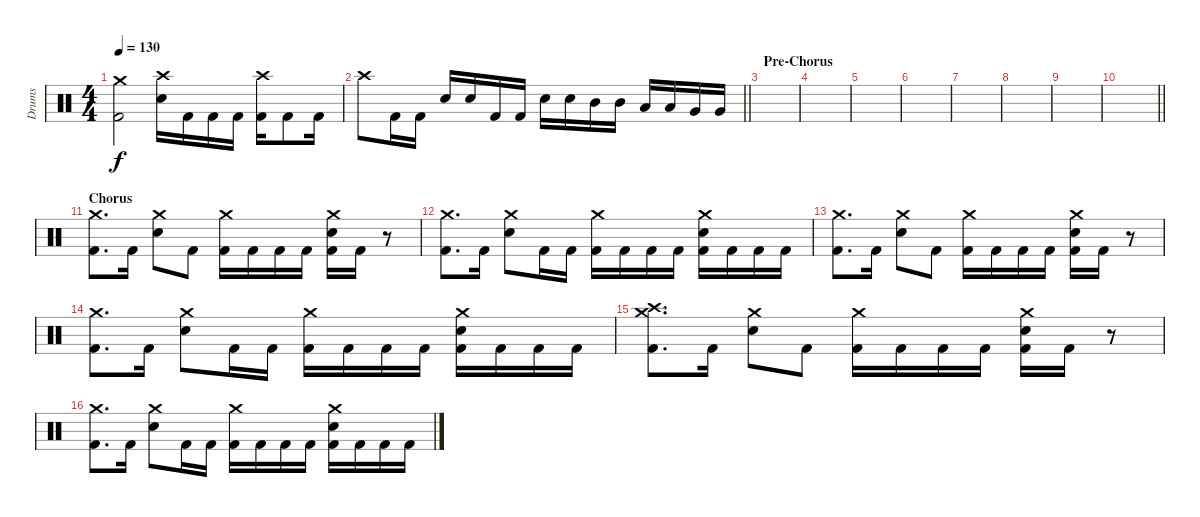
\track ("Drums" "Drums") {instrument percussion}
\staff {score}
\articulation defaults
\ts (4 4)
\tempo 130
\clef neutral
\ks c
("Crash medium (hit)" "Kick (hit) 2").2{dy f} ("Crash high (hit)" "Electric Snare (hit)").16 "Kick (hit) 2".16 "Kick (hit) 2".16 "Kick (hit) 2".16 ("Crash high (hit)" "Kick (hit) 2").16 "Kick (hit) 2".8 "Kick (hit) 2".16 |
\barLineRight lightlight "Crash high (hit)".8 "Kick (hit) 2".16 "Kick (hit) 2".16 "Electric Snare (hit)".16 "Electric Snare (hit)".16 "Kick (hit) 2".16 "Kick (hit) 2".16 "Electric Snare (hit)".16 "Electric Snare (hit)".16 "Mid Tom (hit)".16 "Mid Tom (hit)".16 "Low Tom (hit)".16 "Low Tom (hit)".16 "Very Low Tom (hit)".16 "Very Low Tom (hit)".16
|
\section ("" "Pre-Chorus")
|
|
|
|
|
|
|
\barLineRight lightlight
|
\section ("" "Chorus")
("Crash medium (hit)" "Kick (hit) 2").8{d} "Kick (hit) 2".16 ("Crash medium (hit)" "Electric Snare (hit)").8 "Kick (hit) 2".8 ("Crash medium (hit)" "Kick (hit) 2").16 "Kick (hit) 2".16 "Kick (hit) 2".16 "Kick (hit) 2".16 ("Crash medium (hit)" "Electric Snare (hit)" "Kick (hit) 2").16 "Kick (hit) 2".16 r.8 |
("Crash medium (hit)" "Kick (hit) 2").8{d} "Kick (hit) 2".16 ("Crash medium (hit)" "Electric Snare (hit)").8 "Kick (hit) 2".16 "Kick (hit) 2".16 ("Crash medium (hit)" "Kick (hit) 2").16 "Kick (hit) 2".16 "Kick (hit) 2".16 "Kick (hit) 2".16 ("Crash medium (hit)" "Electric Snare (hit)" "Kick (hit) 2").16 "Kick (hit) 2".16 "Kick (hit) 2".16 "Kick (hit) 2".16 |
("Crash medium (hit)" "Kick (hit) 2").8{d} "Kick (hit) 2".16 ("Crash medium (hit)" "Electric Snare (hit)").8 "Kick (hit) 2".8 ("Crash medium (hit)" "Kick (hit) 2").16 "Kick (hit) 2".16 "Kick (hit) 2".16 "Kick (hit) 2".16 ("Crash medium (hit)" "Electric Snare (hit)" "Kick (hit) 2").16 "Kick (hit) 2".16 r.8 |
("Crash medium (hit)" "Kick (hit) 2").8{d} "Kick (hit) 2".16 ("Crash medium (hit)" "Electric Snare (hit)").8 "Kick (hit) 2".16 "Kick (hit) 2".16 ("Crash medium (hit)" "Kick (hit) 2").16 "Kick (hit) 2".16 "Kick (hit) 2".16 "Kick (hit) 2".16 ("Crash medium (hit)" "Electric Snare (hit)" "Kick (hit) 2").16 "Kick (hit) 2".16 "Kick (hit) 2".16 "Kick (hit) 2".16 |
("Crash medium (hit)" "Crash high (hit)" "Kick (hit) 2").8{d} "Kick (hit) 2".16 ("Crash medium (hit)" "Electric Snare (hit)").8 "Kick (hit) 2".8 ("Crash medium (hit)" "Kick (hit) 2").16 "Kick (hit) 2".16 "Kick (hit) 2".16 "Kick (hit) 2".16 ("Crash medium (hit)" "Electric Snare (hit)" "Kick (hit) 2").16 "Kick (hit) 2".16 r.8 |
("Crash medium (hit)" "Kick (hit) 2").8{d} "Kick (hit) 2".16 ("Crash medium (hit)" "Electric Snare (hit)").8 "Kick (hit) 2".16 "Kick (hit) 2".16 ("Crash medium (hit)" "Kick (hit) 2").16 "Kick (hit) 2".16 "Kick (hit) 2".16 "Kick (hit) 2".16 ("Crash medium (hit)" "Electric Snare (hit)" "Kick (hit) 2").16 "Kick (hit) 2".16 "Kick (hit) 2".16 "Kick (hit) 2".16
